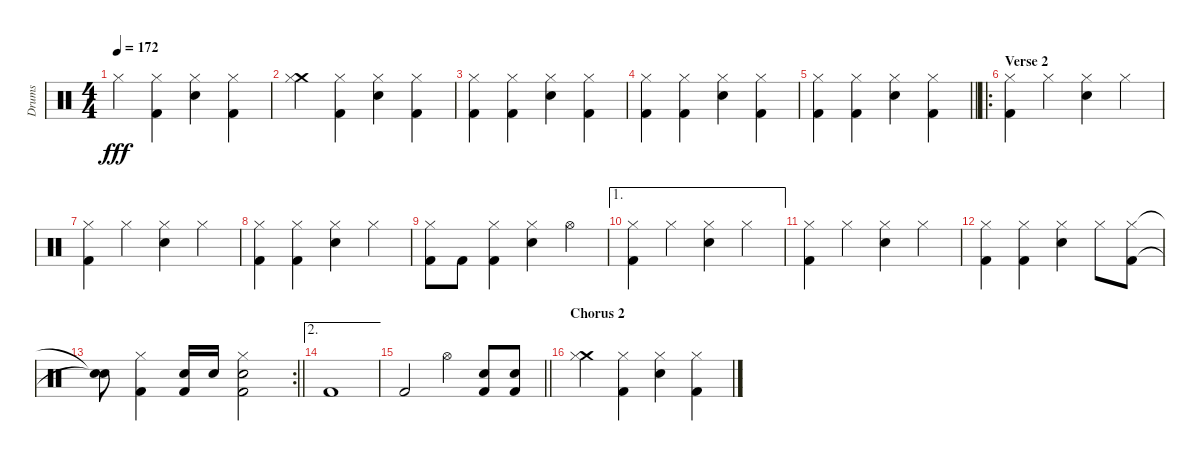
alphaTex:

\track ("Drums" "Drums") {instrument percussion}
\staff {score}
\articulation defaults
\ts (4 4)
\tempo 172
\clef neutral
\ks c "Hi-Hat (closed)".4{dy fff}
("Hi-Hat (closed)" "Kick (hit) 2").4 ("Hi-Hat (closed)" "Electric Snare (hit)").4 ("Hi-Hat (closed)" "Kick (hit) 2").4 |
("Crash medium (hit)" "Hi-Hat (closed)").4 ("Hi-Hat (closed)" "Kick (hit) 2").4 ("Hi-Hat (closed)" "Electric Snare (hit)").4 ("Hi-Hat (closed)" "Kick (hit) 2").4 |
("Hi-Hat (closed)" "Kick (hit) 2").4 ("Hi-Hat (closed)" "Kick (hit) 2").4 ("Hi-Hat (closed)" "Electric Snare (hit)").4 ("Hi-Hat (closed)" "Kick (hit) 2").4 |
("Hi-Hat (closed)" "Kick (hit) 2").4 ("Hi-Hat (closed)" "Kick (hit) 2").4 ("Hi-Hat (closed)" "Electric Snare (hit)").4 ("Hi-Hat (closed)" "Kick (hit) 2").4 |
\barLineRight lightlight
("Hi-Hat (closed)" "Kick (hit) 2").4 ("Hi-Hat (closed)" "Kick (hit) 2").4 ("Hi-Hat (closed)" "Electric Snare (hit)").4 ("Hi-Hat (closed)" "Kick (hit) 2").4 |
\ro
\section ("" "Verse 2")
("Hi-Hat (closed)" "Kick (hit) 2").4 "Hi-Hat (closed)".4 ("Hi-Hat (closed)" "Electric Snare (hit)").4 "Hi-Hat (closed)".4 |
("Hi-Hat (closed)" "Kick (hit) 2").4 "Hi-Hat (closed)".4 ("Hi-Hat (closed)" "Electric Snare (hit)").4 "Hi-Hat (closed)".4 |
("Hi-Hat (closed)" "Kick (hit) 2").4 ("Hi-Hat (closed)" "Kick (hit) 2").4 ("Hi-Hat (closed)" "Electric Snare (hit)").4 "Hi-Hat (closed)".4 |
("Hi-Hat (closed)" "Kick (hit) 2").8 "Kick (hit) 2".8 ("Hi-Hat (closed)" "Kick (hit) 2").4 ("Hi-Hat (closed)" "Electric Snare (hit)").4 "Hi-Hat (open)".4 |
\ae 1
("Hi-Hat (closed)" "Kick (hit) 2").4 "Hi-Hat (closed)".4 ("Hi-Hat (closed)" "Electric Snare (hit)").4 "Hi-Hat (closed)".4 |
("Hi-Hat (closed)" "Kick (hit) 2").4 "Hi-Hat (closed)".4 ("Hi-Hat (closed)" "Electric Snare (hit)").4 "Hi-Hat (closed)".4 |
("Hi-Hat (closed)" "Kick (hit) 2").4 ("Hi-Hat (closed)" "Kick (hit) 2").4 ("Hi-Hat (closed)" "Electric Snare (hit)").4 "Hi-Hat (closed)".8 ("Hi-Hat (closed)" "Kick (hit) 2").8 |
\rc 2
\barLineRight lightlight
("Snare (hit)"{t} "Snare (hit)"{t}).8 ("Hi-Hat (closed)" "Kick (hit) 2").4 ("Electric Snare (hit)" "Kick (hit) 2").16 "Electric Snare (hit)".16 ("Hi-Hat (closed)" "Electric Snare (hit)" "Kick (hit) 2").2 |
\ae 2 "Kick (hit) 2".1
|
\barLineRight lightlight "Kick (hit) 2".2 "Hi-Hat (open)".4
("Electric Snare (hit)" "Kick (hit) 2").8 ("Electric Snare (hit)" "Kick (hit) 2").8 |
\section ("" "Chorus 2")
("Crash medium (hit)" "Hi-Hat (closed)").4 ("Hi-Hat (closed)" "Kick (hit) 2").4 ("Hi-Hat (closed)" "Electric Snare (hit)").4 ("Hi-Hat (closed)" "Kick (hit) 2").4
